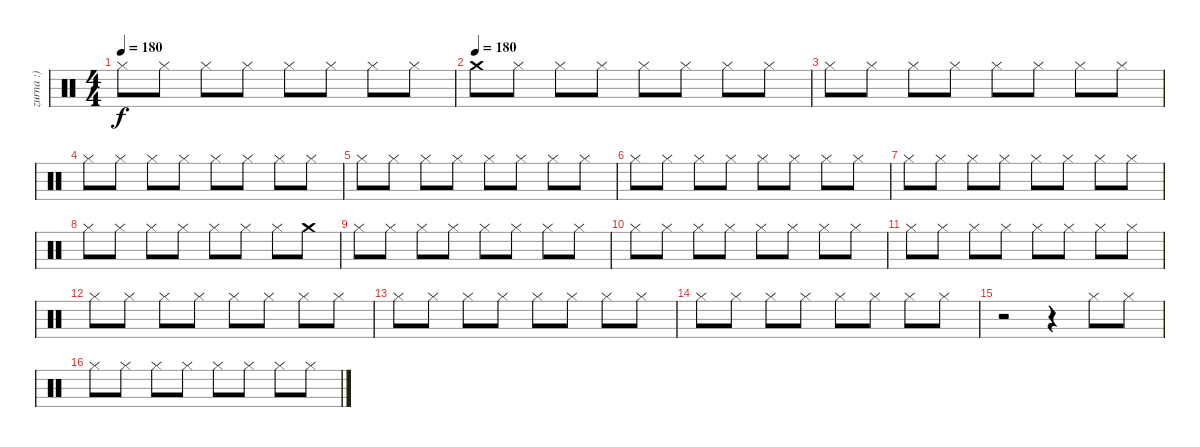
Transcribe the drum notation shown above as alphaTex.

\track ("zurna :)" "zurna :)") {instrument percussion}
\staff {score}
\articulation defaults
\ts (4 4)
\tempo 180
\clef neutral
\ks c "Hi-Hat (closed)".8{dy f} "Hi-Hat (closed)".8 "Hi-Hat (closed)".8 "Hi-Hat (closed)".8 "Hi-Hat (closed)".8 "Hi-Hat (closed)".8 "Hi-Hat (closed)".8 "Hi-Hat (closed)".8
|
\tempo (180)
"Crash medium (hit)".8 "Hi-Hat (closed)".8 "Hi-Hat (closed)".8 "Hi-Hat (closed)".8 "Hi-Hat (closed)".8 "Hi-Hat (closed)".8 "Hi-Hat (closed)".8 "Hi-Hat (closed)".8 |
"Hi-Hat (closed)".8 "Hi-Hat (closed)".8 "Hi-Hat (closed)".8 "Hi-Hat (closed)".8 "Hi-Hat (closed)".8 "Hi-Hat (closed)".8 "Hi-Hat (closed)".8 "Hi-Hat (closed)".8 |
"Hi-Hat (closed)".8 "Hi-Hat (closed)".8 "Hi-Hat (closed)".8 "Hi-Hat (closed)".8 "Hi-Hat (closed)".8 "Hi-Hat (closed)".8 "Hi-Hat (closed)".8 "Hi-Hat (closed)".8 |
"Hi-Hat (closed)".8 "Hi-Hat (closed)".8 "Hi-Hat (closed)".8 "Hi-Hat (closed)".8 "Hi-Hat (closed)".8 "Hi-Hat (closed)".8 "Hi-Hat (closed)".8 "Hi-Hat (closed)".8 |
"Hi-Hat (closed)".8 "Hi-Hat (closed)".8 "Hi-Hat (closed)".8 "Hi-Hat (closed)".8 "Hi-Hat (closed)".8 "Hi-Hat (closed)".8 "Hi-Hat (closed)".8 "Hi-Hat (closed)".8 |
"Hi-Hat (closed)".8 "Hi-Hat (closed)".8 "Hi-Hat (closed)".8 "Hi-Hat (closed)".8 "Hi-Hat (closed)".8 "Hi-Hat (closed)".8 "Hi-Hat (closed)".8 "Hi-Hat (closed)".8 |
"Hi-Hat (closed)".8 "Hi-Hat (closed)".8 "Hi-Hat (closed)".8 "Hi-Hat (closed)".8 "Hi-Hat (closed)".8 "Hi-Hat (closed)".8 "Hi-Hat (closed)".8 "Crash medium (hit)".8 |
"Hi-Hat (closed)".8 "Hi-Hat (closed)".8 "Hi-Hat (closed)".8 "Hi-Hat (closed)".8 "Hi-Hat (closed)".8 "Hi-Hat (closed)".8 "Hi-Hat (closed)".8 "Hi-Hat (closed)".8 |
"Hi-Hat (closed)".8 "Hi-Hat (closed)".8 "Hi-Hat (closed)".8 "Hi-Hat (closed)".8 "Hi-Hat (closed)".8 "Hi-Hat (closed)".8 "Hi-Hat (closed)".8 "Hi-Hat (closed)".8 |
"Hi-Hat (closed)".8 "Hi-Hat (closed)".8 "Hi-Hat (closed)".8 "Hi-Hat (closed)".8 "Hi-Hat (closed)".8 "Hi-Hat (closed)".8 "Hi-Hat (closed)".8 "Hi-Hat (closed)".8 |
"Hi-Hat (closed)".8 "Hi-Hat (closed)".8 "Hi-Hat (closed)".8 "Hi-Hat (closed)".8 "Hi-Hat (closed)".8 "Hi-Hat (closed)".8 "Hi-Hat (closed)".8 "Hi-Hat (closed)".8 |
"Hi-Hat (closed)".8 "Hi-Hat (closed)".8 "Hi-Hat (closed)".8 "Hi-Hat (closed)".8 "Hi-Hat (closed)".8 "Hi-Hat (closed)".8 "Hi-Hat (closed)".8 "Hi-Hat (closed)".8 |
"Hi-Hat (closed)".8 "Hi-Hat (closed)".8 "Hi-Hat (closed)".8 "Hi-Hat (closed)".8 "Hi-Hat (closed)".8 "Hi-Hat (closed)".8 "Hi-Hat (closed)".8 "Hi-Hat (closed)".8 |
r.2 r.4 "Hi-Hat (closed)".8 "Hi-Hat (closed)".8 |
"Hi-Hat (closed)".8 "Hi-Hat (closed)".8 "Hi-Hat (closed)".8 "Hi-Hat (closed)".8 "Hi-Hat (closed)".8 "Hi-Hat (closed)".8 "Hi-Hat (closed)".8 "Hi-Hat (closed)".8
